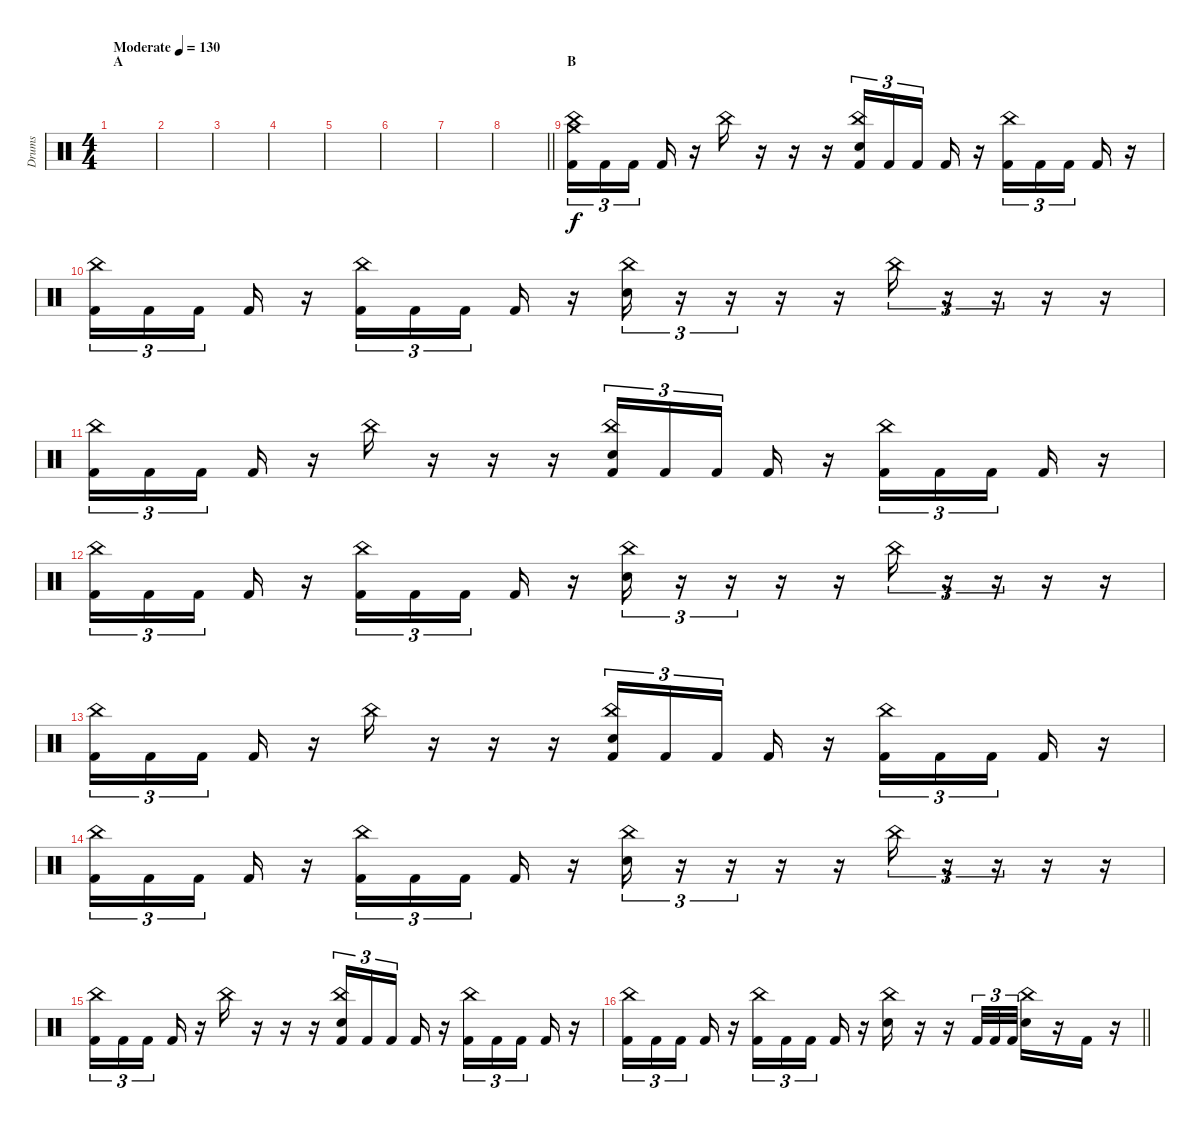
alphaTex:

\track ("Drums" "Drums") {instrument percussion}
\staff {score}
\articulation defaults
\ts (4 4)
\section ("" "A")
\tempo (130 "Moderate")
\clef neutral
\ks c
|
|
|
|
|
|
|
\barLineRight lightlight
|
\section ("" "B")
("Kick (hit) 2" "China (hit)" "Crash medium (hit)").16{tu (3 2)} "Kick (hit) 2".16{tu (3 2)} "Kick (hit) 2".16{tu (3 2) beam splitsecondary} "Kick (hit) 2".16 r.16 "China (hit)".16 r.16 r.16 r.16 ("Kick (hit) 2" "Snare (hit) 2" "China (hit)").16{tu (3 2)} "Kick (hit) 2".16{tu (3 2)} "Kick (hit) 2".16{tu (3 2) beam splitsecondary} "Kick (hit) 2".16 r.16 ("Kick (hit) 2" "China (hit)").16{tu (3 2)} "Kick (hit) 2".16{tu (3 2)} "Kick (hit) 2".16{tu (3 2) beam splitsecondary} "Kick (hit) 2".16 r.16 |
("Kick (hit) 2" "China (hit)").16{tu (3 2)} "Kick (hit) 2".16{tu (3 2)} "Kick (hit) 2".16{tu (3 2) beam splitsecondary} "Kick (hit) 2".16 r.16 ("Kick (hit) 2" "China (hit)").16{tu (3 2)} "Kick (hit) 2".16{tu (3 2)} "Kick (hit) 2".16{tu (3 2) beam splitsecondary} "Kick (hit) 2".16 r.16 ("Snare (hit) 2" "China (hit)").16{tu (3 2)} r.16{tu (3 2)} r.16{tu (3 2)} r.16 r.16 "China (hit)".16{tu (3 2)} r.16{tu (3 2)} r.16{tu (3 2)} r.16 r.16 |
("Kick (hit) 2" "China (hit)").16{tu (3 2)} "Kick (hit) 2".16{tu (3 2)} "Kick (hit) 2".16{tu (3 2) beam splitsecondary} "Kick (hit) 2".16 r.16 "China (hit)".16 r.16 r.16 r.16 ("Kick (hit) 2" "Snare (hit) 2" "China (hit)").16{tu (3 2)} "Kick (hit) 2".16{tu (3 2)} "Kick (hit) 2".16{tu (3 2) beam splitsecondary} "Kick (hit) 2".16 r.16 ("Kick (hit) 2" "China (hit)").16{tu (3 2)} "Kick (hit) 2".16{tu (3 2)} "Kick (hit) 2".16{tu (3 2) beam splitsecondary} "Kick (hit) 2".16 r.16 |
("Kick (hit) 2" "China (hit)").16{tu (3 2)} "Kick (hit) 2".16{tu (3 2)} "Kick (hit) 2".16{tu (3 2) beam splitsecondary} "Kick (hit) 2".16 r.16 ("Kick (hit) 2" "China (hit)").16{tu (3 2)} "Kick (hit) 2".16{tu (3 2)} "Kick (hit) 2".16{tu (3 2) beam splitsecondary} "Kick (hit) 2".16 r.16 ("Snare (hit) 2" "China (hit)").16{tu (3 2)} r.16{tu (3 2)} r.16{tu (3 2)} r.16 r.16 "China (hit)".16{tu (3 2)} r.16{tu (3 2)} r.16{tu (3 2)} r.16 r.16 |
("Kick (hit) 2" "China (hit)").16{tu (3 2)} "Kick (hit) 2".16{tu (3 2)} "Kick (hit) 2".16{tu (3 2) beam splitsecondary} "Kick (hit) 2".16 r.16 "China (hit)".16 r.16 r.16 r.16 ("Kick (hit) 2" "Snare (hit) 2" "China (hit)").16{tu (3 2)} "Kick (hit) 2".16{tu (3 2)} "Kick (hit) 2".16{tu (3 2) beam splitsecondary} "Kick (hit) 2".16 r.16 ("Kick (hit) 2" "China (hit)").16{tu (3 2)} "Kick (hit) 2".16{tu (3 2)} "Kick (hit) 2".16{tu (3 2) beam splitsecondary} "Kick (hit) 2".16 r.16 |
("Kick (hit) 2" "China (hit)").16{tu (3 2)} "Kick (hit) 2".16{tu (3 2)} "Kick (hit) 2".16{tu (3 2) beam splitsecondary} "Kick (hit) 2".16 r.16 ("Kick (hit) 2" "China (hit)").16{tu (3 2)} "Kick (hit) 2".16{tu (3 2)} "Kick (hit) 2".16{tu (3 2) beam splitsecondary} "Kick (hit) 2".16 r.16 ("Snare (hit) 2" "China (hit)").16{tu (3 2)} r.16{tu (3 2)} r.16{tu (3 2)} r.16 r.16 "China (hit)".16{tu (3 2)} r.16{tu (3 2)} r.16{tu (3 2)} r.16 r.16 |
("Kick (hit) 2" "China (hit)").16{tu (3 2)} "Kick (hit) 2".16{tu (3 2)} "Kick (hit) 2".16{tu (3 2) beam splitsecondary} "Kick (hit) 2".16 r.16 "China (hit)".16 r.16 r.16 r.16 ("Kick (hit) 2" "Snare (hit) 2" "China (hit)").16{tu (3 2)} "Kick (hit) 2".16{tu (3 2)} "Kick (hit) 2".16{tu (3 2) beam splitsecondary} "Kick (hit) 2".16 r.16 ("Kick (hit) 2" "China (hit)").16{tu (3 2)} "Kick (hit) 2".16{tu (3 2)} "Kick (hit) 2".16{tu (3 2) beam splitsecondary} "Kick (hit) 2".16 r.16 |
\barLineRight lightlight
("Kick (hit) 2" "China (hit)").16{tu (3 2)} "Kick (hit) 2".16{tu (3 2)} "Kick (hit) 2".16{tu (3 2) beam splitsecondary} "Kick (hit) 2".16 r.16 ("Kick (hit) 2" "China (hit)").16{tu (3 2)} "Kick (hit) 2".16{tu (3 2)} "Kick (hit) 2".16{tu (3 2) beam splitsecondary} "Kick (hit) 2".16 r.16 ("Snare (hit) 2" "China (hit)").16 r.16 r.16 "Kick (hit) 2".32{tu (3 2)} "Kick (hit) 2".32{tu (3 2)} "Kick (hit) 2".32{tu (3 2)} ("Snare (hit) 2" "China (hit)").16 r.16 "Kick (hit) 2".16 r.16
